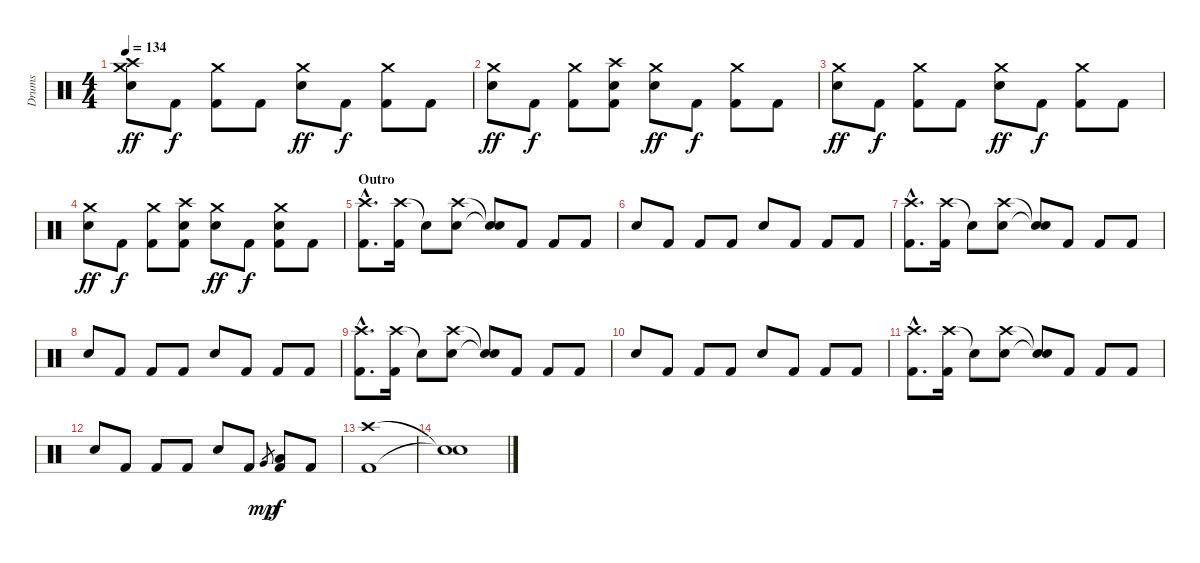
\track ("Drums" "Drums") {instrument percussion}
\staff {score}
\articulation defaults
\ts (4 4)
\tempo 134
\clef neutral
\ks c
("Crash high (hit)" "Crash medium (hit)" "Electric Snare (hit)").8{dy ff} "Kick (hit) 2".8{dy f} ("Crash medium (hit)" "Kick (hit) 2").8 "Kick (hit) 2".8 ("Crash medium (hit)" "Electric Snare (hit)").8{dy ff} "Kick (hit) 2".8{dy f} ("Crash medium (hit)" "Kick (hit) 2").8 "Kick (hit) 2".8 |
("Crash medium (hit)" "Electric Snare (hit)").8{dy ff} "Kick (hit) 2".8{dy f} ("Crash medium (hit)" "Kick (hit) 2").8 ("Crash high (hit)" "Electric Snare (hit)" "Kick (hit) 2").8 ("Crash medium (hit)" "Electric Snare (hit)").8{dy ff} "Kick (hit) 2".8{dy f} ("Crash medium (hit)" "Kick (hit) 2").8 "Kick (hit) 2".8 |
("Crash medium (hit)" "Electric Snare (hit)").8{dy ff} "Kick (hit) 2".8{dy f} ("Crash medium (hit)" "Kick (hit) 2").8 "Kick (hit) 2".8 ("Crash medium (hit)" "Electric Snare (hit)").8{dy ff} "Kick (hit) 2".8{dy f} ("Crash medium (hit)" "Kick (hit) 2").8 "Kick (hit) 2".8 |
("Crash medium (hit)" "Electric Snare (hit)").8{dy ff} "Kick (hit) 2".8{dy f} ("Crash medium (hit)" "Kick (hit) 2").8 ("Crash high (hit)" "Electric Snare (hit)" "Kick (hit) 2").8 ("Crash medium (hit)" "Electric Snare (hit)").8{dy ff} "Kick (hit) 2".8{dy f} ("Crash medium (hit)" "Electric Snare (hit)" "Kick (hit) 2").8 "Kick (hit) 2".8 |
\section ("" "Outro")
("Crash high (hit)"{hac} "Kick (hit) 2"{hac}).8{d} ("Crash high (hit)" "Kick (hit) 2").16 "Snare (hit)"{t}.8 ("Crash high (hit)" "Electric Snare (hit)").8 ("Snare (hit)"{t} "Snare (hit)"{t}).8 "Kick (hit) 2".8 "Kick (hit) 2".8 "Kick (hit) 2".8 |
"Electric Snare (hit)".8 "Kick (hit) 2".8 "Kick (hit) 2".8 "Kick (hit) 2".8 "Electric Snare (hit)".8 "Kick (hit) 2".8 "Kick (hit) 2".8 "Kick (hit) 2".8 |
("Crash high (hit)"{hac} "Kick (hit) 2"{hac}).8{d} ("Crash high (hit)" "Kick (hit) 2").16 "Snare (hit)"{t}.8 ("Crash high (hit)" "Electric Snare (hit)").8 ("Snare (hit)"{t} "Snare (hit)"{t}).8 "Kick (hit) 2".8 "Kick (hit) 2".8 "Kick (hit) 2".8 |
"Electric Snare (hit)".8 "Kick (hit) 2".8 "Kick (hit) 2".8 "Kick (hit) 2".8 "Electric Snare (hit)".8 "Kick (hit) 2".8 "Kick (hit) 2".8 "Kick (hit) 2".8 |
("Crash high (hit)"{hac} "Kick (hit) 2"{hac}).8{d} ("Crash high (hit)" "Kick (hit) 2").16 "Snare (hit)"{t}.8 ("Crash high (hit)" "Electric Snare (hit)").8 ("Snare (hit)"{t} "Snare (hit)"{t}).8 "Kick (hit) 2".8 "Kick (hit) 2".8 "Kick (hit) 2".8 |
"Electric Snare (hit)".8 "Kick (hit) 2".8 "Kick (hit) 2".8 "Kick (hit) 2".8 "Electric Snare (hit)".8 "Kick (hit) 2".8 "Kick (hit) 2".8 "Kick (hit) 2".8 |
("Crash high (hit)"{hac} "Kick (hit) 2"{hac}).8{d} ("Crash high (hit)" "Kick (hit) 2").16 "Snare (hit)"{t}.8 ("Crash high (hit)" "Electric Snare (hit)").8 ("Snare (hit)"{t} "Snare (hit)"{t}).8 "Kick (hit) 2".8 "Kick (hit) 2".8 "Kick (hit) 2".8 |
"Electric Snare (hit)".8 "Kick (hit) 2".8 "Kick (hit) 2".8 "Kick (hit) 2".8 "Electric Snare (hit)".8 "Kick (hit) 2".8 "Very Low Tom (hit)".8{gr dy mp} ("Low Floor Tom (hit)" "Kick (hit) 2").8{dy f} "Kick (hit) 2".8 |
("Crash high (hit)" "Kick (hit) 2").1 |
("Snare (hit)"{t} "Snare (hit)"{t}).1
